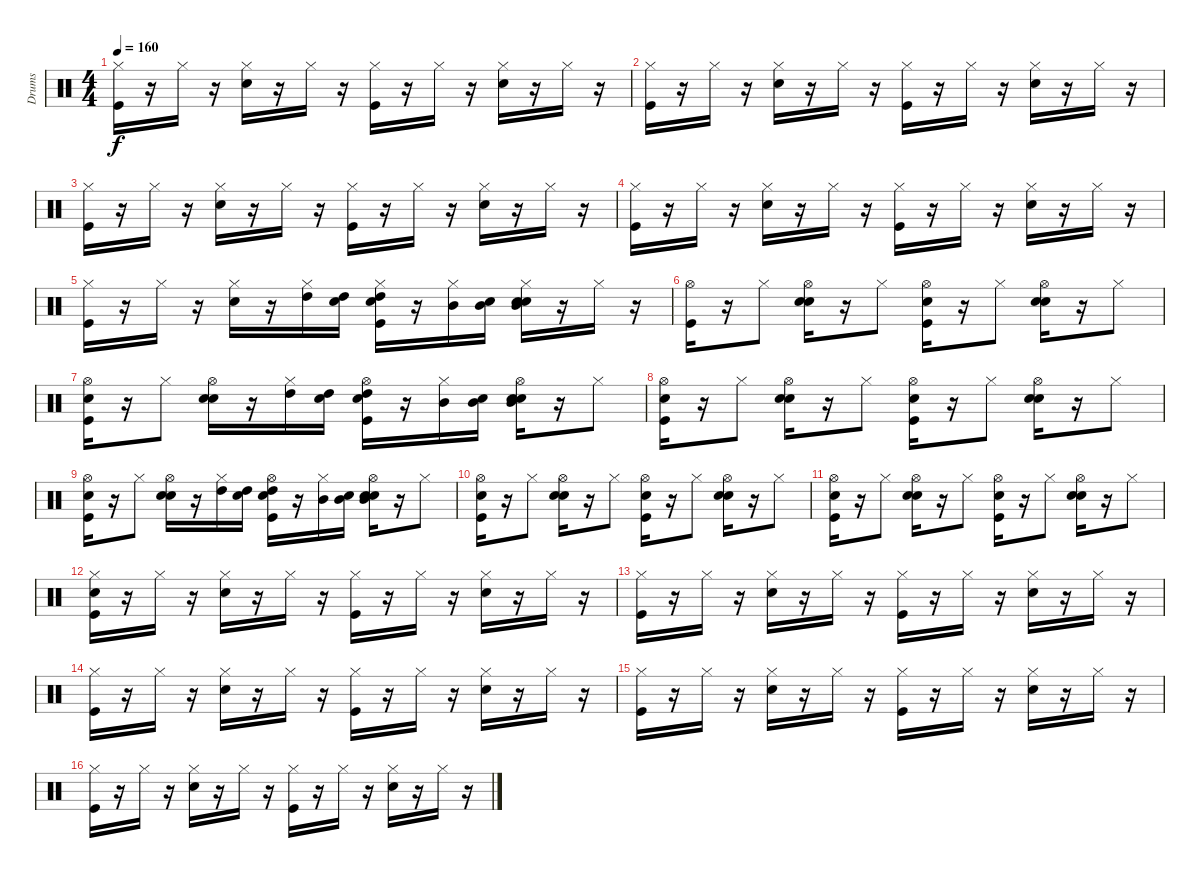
\track ("Drums               " "Drums     ") {instrument percussion}
\staff {score}
\articulation defaults
\ts (4 4)
\tempo 160
\clef neutral
\ks c
("Kick (hit)" "Hi-Hat (closed)").16{dy f} r.16 "Hi-Hat (closed)".16 r.16 ("Snare (hit) 2" "Hi-Hat (closed)").16 r.16 "Hi-Hat (closed)".16 r.16 ("Kick (hit)" "Hi-Hat (closed)").16 r.16 "Hi-Hat (closed)".16 r.16 ("Snare (hit) 2" "Hi-Hat (closed)").16 r.16 "Hi-Hat (closed)".16 r.16 |
("Kick (hit)" "Hi-Hat (closed)").16 r.16 "Hi-Hat (closed)".16 r.16 ("Snare (hit) 2" "Hi-Hat (closed)").16 r.16 "Hi-Hat (closed)".16 r.16 ("Kick (hit)" "Hi-Hat (closed)").16 r.16 "Hi-Hat (closed)".16 r.16 ("Snare (hit) 2" "Hi-Hat (closed)").16 r.16 "Hi-Hat (closed)".16 r.16 |
("Kick (hit)" "Hi-Hat (closed)").16 r.16 "Hi-Hat (closed)".16 r.16 ("Snare (hit) 2" "Hi-Hat (closed)").16 r.16 "Hi-Hat (closed)".16 r.16 ("Kick (hit)" "Hi-Hat (closed)").16 r.16 "Hi-Hat (closed)".16 r.16 ("Snare (hit) 2" "Hi-Hat (closed)").16 r.16 "Hi-Hat (closed)".16 r.16 |
("Kick (hit)" "Hi-Hat (closed)").16 r.16 "Hi-Hat (closed)".16 r.16 ("Snare (hit) 2" "Hi-Hat (closed)").16 r.16 "Hi-Hat (closed)".16 r.16 ("Kick (hit)" "Hi-Hat (closed)").16 r.16 "Hi-Hat (closed)".16 r.16 ("Snare (hit) 2" "Hi-Hat (closed)").16 r.16 "Hi-Hat (closed)".16 r.16 |
("Kick (hit)" "Hi-Hat (closed)").16 r.16 "Hi-Hat (closed)".16 r.16 ("Snare (hit) 2" "Hi-Hat (closed)").16 r.16 ("Hi-Hat (closed)" "High Tom (hit)").16 ("Snare (hit)" "High Tom (hit)").16 ("Snare (hit)" "Kick (hit)" "Hi-Hat (closed)" "High Tom (hit)").16 r.16 ("Hi-Hat (closed)" "Mid Tom (hit)").16 ("Snare (hit)" "Mid Tom (hit)").16 ("Snare (hit)" "Snare (hit) 2" "Hi-Hat (closed)" "Mid Tom (hit)").16 r.16 "Hi-Hat (closed)".16 r.16 |
("Kick (hit)" "Hi-Hat (open)").16 r.16 "Hi-Hat (closed)".8 ("Snare (hit)" "Snare (hit) 2" "Hi-Hat (open)").16 r.16 "Hi-Hat (closed)".8 ("Snare (hit)" "Kick (hit)" "Hi-Hat (open)").16 r.16 "Hi-Hat (closed)".8 ("Snare (hit)" "Snare (hit) 2" "Hi-Hat (open)").16 r.16 "Hi-Hat (closed)".8 |
("Snare (hit)" "Kick (hit)" "Hi-Hat (open)").16 r.16 "Hi-Hat (closed)".8 ("Snare (hit)" "Snare (hit) 2" "Hi-Hat (open)").16 r.16 ("High Tom (hit)" "Hi-Hat (closed)").16 ("Snare (hit)" "High Tom (hit)").16 ("Snare (hit)" "Kick (hit)" "High Tom (hit)" "Hi-Hat (open)").16 r.16 ("Mid Tom (hit)" "Hi-Hat (closed)").16 ("Snare (hit)" "Mid Tom (hit)").16 ("Snare (hit)" "Snare (hit) 2" "Mid Tom (hit)" "Hi-Hat (open)").16 r.16 "Hi-Hat (closed)".8 |
("Snare (hit)" "Kick (hit)" "Hi-Hat (open)").16 r.16 "Hi-Hat (closed)".8 ("Snare (hit)" "Snare (hit) 2" "Hi-Hat (open)").16 r.16 "Hi-Hat (closed)".8 ("Snare (hit)" "Kick (hit)" "Hi-Hat (open)").16 r.16 "Hi-Hat (closed)".8 ("Snare (hit)" "Snare (hit) 2" "Hi-Hat (open)").16 r.16 "Hi-Hat (closed)".8 |
("Snare (hit)" "Kick (hit)" "Hi-Hat (open)").16 r.16 "Hi-Hat (closed)".8 ("Snare (hit)" "Snare (hit) 2" "Hi-Hat (open)").16 r.16 ("Hi-Hat (closed)" "High Tom (hit)").16 ("Snare (hit)" "High Tom (hit)").16 ("Snare (hit)" "Kick (hit)" "High Tom (hit)" "Hi-Hat (open)").16 r.16 ("Hi-Hat (closed)" "Mid Tom (hit)").16 ("Snare (hit)" "Mid Tom (hit)").16 ("Snare (hit)" "Snare (hit) 2" "Mid Tom (hit)" "Hi-Hat (open)").16 r.16 "Hi-Hat (closed)".8 |
("Snare (hit)" "Kick (hit)" "Hi-Hat (open)").16 r.16 "Hi-Hat (closed)".8 ("Snare (hit)" "Snare (hit) 2" "Hi-Hat (open)").16 r.16 "Hi-Hat (closed)".8 ("Snare (hit)" "Kick (hit)" "Hi-Hat (open)").16 r.16 "Hi-Hat (closed)".8 ("Snare (hit)" "Snare (hit) 2" "Hi-Hat (open)").16 r.16 "Hi-Hat (closed)".8 |
("Snare (hit)" "Kick (hit)" "Hi-Hat (open)").16 r.16 "Hi-Hat (closed)".8 ("Snare (hit)" "Snare (hit) 2" "Hi-Hat (open)").16 r.16 "Hi-Hat (closed)".8 ("Snare (hit)" "Kick (hit)" "Hi-Hat (open)").16 r.16 "Hi-Hat (closed)".8 ("Snare (hit)" "Snare (hit) 2" "Hi-Hat (open)").16 r.16 "Hi-Hat (closed)".8 |
("Snare (hit)" "Kick (hit)" "Hi-Hat (closed)").16 r.16 "Hi-Hat (closed)".16 r.16 ("Snare (hit) 2" "Hi-Hat (closed)").16 r.16 "Hi-Hat (closed)".16 r.16 ("Kick (hit)" "Hi-Hat (closed)").16 r.16 "Hi-Hat (closed)".16 r.16 ("Snare (hit) 2" "Hi-Hat (closed)").16 r.16 "Hi-Hat (closed)".16 r.16 |
("Kick (hit)" "Hi-Hat (closed)").16 r.16 "Hi-Hat (closed)".16 r.16 ("Snare (hit) 2" "Hi-Hat (closed)").16 r.16 "Hi-Hat (closed)".16 r.16 ("Kick (hit)" "Hi-Hat (closed)").16 r.16 "Hi-Hat (closed)".16 r.16 ("Snare (hit) 2" "Hi-Hat (closed)").16 r.16 "Hi-Hat (closed)".16 r.16 |
("Kick (hit)" "Hi-Hat (closed)").16 r.16 "Hi-Hat (closed)".16 r.16 ("Snare (hit) 2" "Hi-Hat (closed)").16 r.16 "Hi-Hat (closed)".16 r.16 ("Kick (hit)" "Hi-Hat (closed)").16 r.16 "Hi-Hat (closed)".16 r.16 ("Snare (hit) 2" "Hi-Hat (closed)").16 r.16 "Hi-Hat (closed)".16 r.16 |
("Kick (hit)" "Hi-Hat (closed)").16 r.16 "Hi-Hat (closed)".16 r.16 ("Snare (hit) 2" "Hi-Hat (closed)").16 r.16 "Hi-Hat (closed)".16 r.16 ("Kick (hit)" "Hi-Hat (closed)").16 r.16 "Hi-Hat (closed)".16 r.16 ("Snare (hit) 2" "Hi-Hat (closed)").16 r.16 "Hi-Hat (closed)".16 r.16 |
("Kick (hit)" "Hi-Hat (closed)").16 r.16 "Hi-Hat (closed)".16 r.16 ("Snare (hit) 2" "Hi-Hat (closed)").16 r.16 "Hi-Hat (closed)".16 r.16 ("Kick (hit)" "Hi-Hat (closed)").16 r.16 "Hi-Hat (closed)".16 r.16 ("Snare (hit) 2" "Hi-Hat (closed)").16 r.16 "Hi-Hat (closed)".16 r.16
